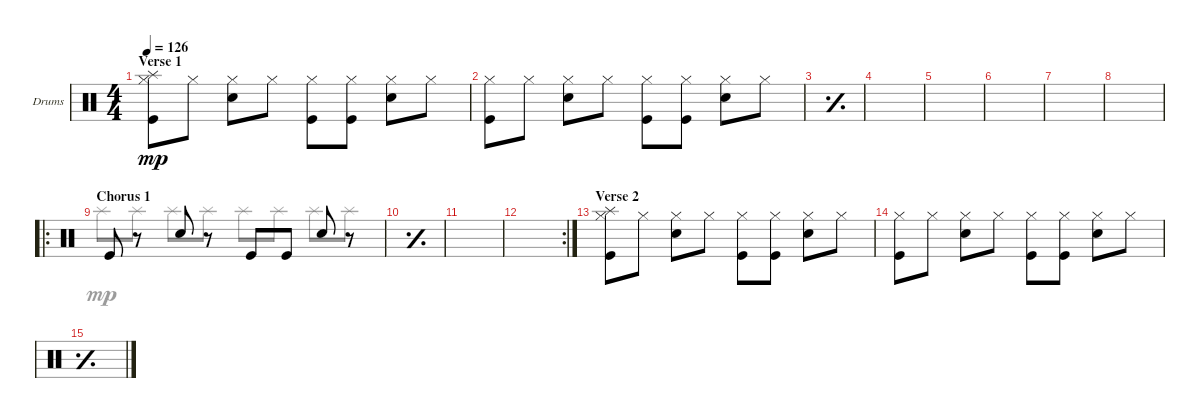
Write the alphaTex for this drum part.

\defaultSystemsLayout 4
\bracketExtendMode groupsimilarinstruments
\firstSystemTrackNameOrientation horizontal
\otherSystemsTrackNameOrientation horizontal
\track ("Drumkit" "Drums") {instrument percussion}
\staff {score}
\articulation defaults
\voice
\ts (4 4)
\section ("" "Verse 1")
\tempo 126
\clef neutral
\scale
0.333333
\ks c
("Hi-Hat (closed)" "Kick (hit)" "Splash (hit)").8{dy mp} "Hi-Hat (closed)".8 ("Hi-Hat (closed)" "Snare (hit) 2").8 "Hi-Hat (closed)".8 ("Hi-Hat (closed)" "Kick (hit)").8 ("Hi-Hat (closed)" "Kick (hit)").8 ("Hi-Hat (closed)" "Snare (hit) 2").8 "Hi-Hat (closed)".8 |
\scale
0.333333 ("Hi-Hat (closed)" "Kick (hit)").8 "Hi-Hat (closed)".8 ("Hi-Hat (closed)" "Snare (hit) 2").8 "Hi-Hat (closed)".8 ("Hi-Hat (closed)" "Kick (hit)").8 ("Hi-Hat (closed)" "Kick (hit)").8 ("Hi-Hat (closed)" "Snare (hit) 2").8 "Hi-Hat (closed)".8 |
\simile simple
\scale
0.333333 |
\scale
0.333333 |
\scale
0.333333 |
\scale
0.333333 |
\scale
0.333333 |
\scale
0.333333 |
\ro
\section ("" "Chorus 1")
\simile none
\scale
0.333333 "Kick (hit)".8 r.8 "Snare (hit) 2".8 r.8 "Kick (hit)".8 "Kick (hit)".8 "Snare (hit) 2".8 r.8 |
\simile simple
\scale
0.333333 |
\scale
0.333333 |
\rc 2
|
\section ("" "Verse 2")
\simile none
("Hi-Hat (closed)" "Kick (hit)" "Splash (hit)").8 "Hi-Hat (closed)".8 ("Hi-Hat (closed)" "Snare (hit) 2").8 "Hi-Hat (closed)".8 ("Hi-Hat (closed)" "Kick (hit)").8 ("Hi-Hat (closed)" "Kick (hit)").8 ("Hi-Hat (closed)" "Snare (hit) 2").8 "Hi-Hat (closed)".8 |
("Hi-Hat (closed)" "Kick (hit)").8 "Hi-Hat (closed)".8 ("Hi-Hat (closed)" "Snare (hit) 2").8 "Hi-Hat (closed)".8 ("Hi-Hat (closed)" "Kick (hit)").8 ("Hi-Hat (closed)" "Kick (hit)").8 ("Hi-Hat (closed)" "Snare (hit) 2").8 "Hi-Hat (closed)".8 |
\simile simple
|
\voice
\clef neutral
\ottava regular
\simile none
\scale
0.333333
\ks c
|
\scale
0.333333 |
\simile simple
\scale
0.333333 |
\scale
0.333333 |
\scale
0.333333 |
\scale
0.333333 |
\scale
0.333333 |
\scale
0.333333 |
\simile none
\scale
0.333333 "Splash (hit)".8 "Splash (hit)".8 "Splash (hit)".8 "Splash (hit)".8 "Splash (hit)".8 "Splash (hit)".8 "Splash (hit)".8 "Splash (hit)".8 |
\simile simple
\scale
0.333333 |
\scale
0.333333 |
|
\simile none
|
|
\simile simple
|
